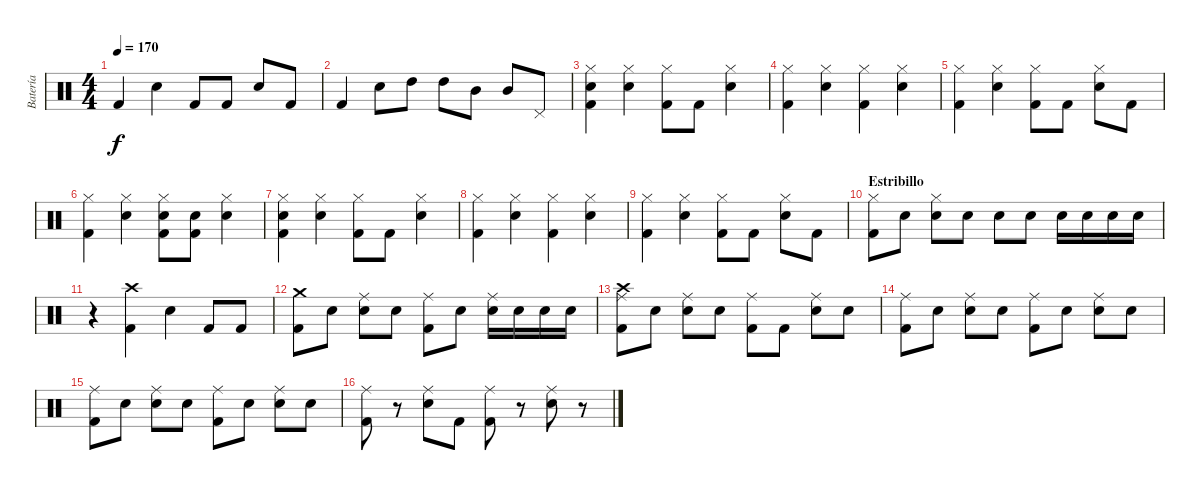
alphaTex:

\track ("Batería" "Batería") {instrument percussion}
\staff {score}
\articulation defaults
\ts (4 4)
\tempo 170
\clef neutral
\ks c "Kick (hit) 2".4{dy f} "Snare (hit) 2".4 "Kick (hit) 2".8 "Kick (hit) 2".8 "Snare (hit) 2".8 "Kick (hit) 2".8
|
"Kick (hit) 2".4 "Snare (hit) 2".8 "High Tom (hit)".8 "High Tom (hit)".8 "Mid Tom (hit)".8 "Mid Tom (hit)".8 "Pedal Hi-Hat (hit)".8 |
("Hi-Hat (closed)" "Kick (hit) 2" "Snare (hit)").4 ("Hi-Hat (closed)" "Snare (hit) 2").4 ("Hi-Hat (closed)" "Kick (hit) 2").8 "Kick (hit) 2".8 ("Hi-Hat (closed)" "Snare (hit) 2").4 |
("Hi-Hat (closed)" "Kick (hit) 2").4 ("Hi-Hat (closed)" "Snare (hit) 2").4 ("Hi-Hat (closed)" "Kick (hit) 2").4 ("Hi-Hat (closed)" "Snare (hit) 2").4 |
("Hi-Hat (closed)" "Kick (hit) 2").4 ("Hi-Hat (closed)" "Snare (hit) 2").4 ("Hi-Hat (closed)" "Kick (hit) 2").8 "Kick (hit) 2".8 ("Hi-Hat (closed)" "Snare (hit) 2").8 "Kick (hit) 2".8 |
("Hi-Hat (closed)" "Kick (hit) 2").4 ("Hi-Hat (closed)" "Snare (hit) 2").4 ("Hi-Hat (closed)" "Kick (hit) 2" "Snare (hit)").8 ("Kick (hit) 2" "Snare (hit)").8 ("Hi-Hat (closed)" "Snare (hit) 2").4 |
("Hi-Hat (closed)" "Kick (hit) 2" "Snare (hit)").4 ("Hi-Hat (closed)" "Snare (hit) 2").4 ("Hi-Hat (closed)" "Kick (hit) 2").8 "Kick (hit) 2".8 ("Hi-Hat (closed)" "Snare (hit) 2").4 |
("Hi-Hat (closed)" "Kick (hit) 2").4 ("Hi-Hat (closed)" "Snare (hit) 2").4 ("Hi-Hat (closed)" "Kick (hit) 2").4 ("Hi-Hat (closed)" "Snare (hit) 2").4 |
("Hi-Hat (closed)" "Kick (hit) 2").4 ("Hi-Hat (closed)" "Snare (hit) 2").4 ("Hi-Hat (closed)" "Kick (hit) 2").8 "Kick (hit) 2".8 ("Hi-Hat (closed)" "Snare (hit) 2").8 "Kick (hit) 2".8 |
\section ("" "Estribillo")
("Hi-Hat (closed)" "Kick (hit) 2").8 "Snare (hit) 2".8 ("Hi-Hat (closed)" "Snare (hit)").8 "Snare (hit)".8 "Snare (hit) 2".8 "Snare (hit) 2".8 "Snare (hit) 2".16 "Snare (hit) 2".16 "Snare (hit) 2".16 "Snare (hit) 2".16 |
r.4 ("Crash high (hit)" "Kick (hit) 2").4 "Snare (hit) 2".4 "Kick (hit) 2".8 "Kick (hit) 2".8 |
("Crash medium (hit)" "Kick (hit) 2").8 "Snare (hit)".8 ("Ride (middle)" "Snare (hit) 2").8 "Snare (hit)".8 ("Ride (middle)" "Kick (hit) 2").8 "Snare (hit) 2".8 ("Ride (middle)" "Snare (hit)").16 "Snare (hit) 2".16 "Snare (hit) 2".16 "Snare (hit) 2".16 |
("Crash high (hit)" "Ride (middle)" "Kick (hit) 2").8 "Snare (hit)".8 ("Ride (middle)" "Snare (hit) 2").8 "Snare (hit)".8 ("Ride (middle)" "Kick (hit) 2").8 "Kick (hit) 2".8 ("Ride (middle)" "Snare (hit) 2").8 "Snare (hit)".8 |
("Ride (middle)" "Kick (hit) 2").8 "Snare (hit)".8 ("Ride (middle)" "Snare (hit) 2").8 "Snare (hit)".8 ("Ride (middle)" "Kick (hit) 2").8 "Snare (hit)".8 ("Ride (middle)" "Snare (hit) 2").8 "Snare (hit)".8 |
("Ride (middle)" "Kick (hit) 2").8 "Snare (hit)".8 ("Ride (middle)" "Snare (hit) 2").8 "Snare (hit)".8 ("Ride (middle)" "Kick (hit) 2").8 "Snare (hit)".8 ("Ride (middle)" "Snare (hit) 2").8 "Snare (hit)".8 |
("Ride (middle)" "Kick (hit) 2").8 r.8 ("Ride (middle)" "Snare (hit) 2").8 "Kick (hit) 2".8 ("Ride (middle)" "Kick (hit) 2").8 r.8 ("Ride (middle)" "Snare (hit) 2").8 r.8
